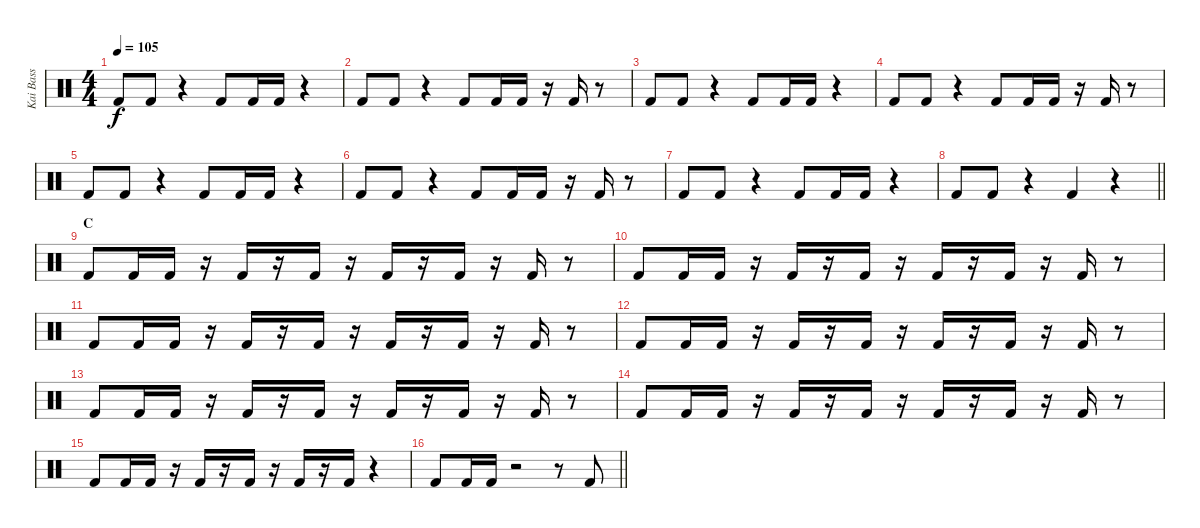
\track ("Kai Bass" "Kai Bass") {instrument percussion}
\staff {score}
\articulation defaults
\ts (4 4)
\tempo 105
\clef neutral
\ks c "Kick (hit) 2".8{dy f} "Kick (hit) 2".8
r.4 "Kick (hit) 2".8 "Kick (hit) 2".16 "Kick (hit) 2".16 r.4 |
"Kick (hit) 2".8 "Kick (hit) 2".8 r.4 "Kick (hit) 2".8 "Kick (hit) 2".16 "Kick (hit) 2".16 r.16 "Kick (hit) 2".16 r.8 |
"Kick (hit) 2".8 "Kick (hit) 2".8 r.4 "Kick (hit) 2".8 "Kick (hit) 2".16 "Kick (hit) 2".16 r.4 |
"Kick (hit) 2".8 "Kick (hit) 2".8 r.4 "Kick (hit) 2".8 "Kick (hit) 2".16 "Kick (hit) 2".16 r.16 "Kick (hit) 2".16 r.8 |
"Kick (hit) 2".8 "Kick (hit) 2".8 r.4 "Kick (hit) 2".8 "Kick (hit) 2".16 "Kick (hit) 2".16 r.4 |
"Kick (hit) 2".8 "Kick (hit) 2".8 r.4 "Kick (hit) 2".8 "Kick (hit) 2".16 "Kick (hit) 2".16 r.16 "Kick (hit) 2".16 r.8 |
"Kick (hit) 2".8 "Kick (hit) 2".8 r.4 "Kick (hit) 2".8 "Kick (hit) 2".16 "Kick (hit) 2".16 r.4 |
\barLineRight lightlight "Kick (hit) 2".8 "Kick (hit) 2".8
r.4 "Kick (hit) 2".4 r.4 |
\section ("" "C")
"Kick (hit) 2".8 "Kick (hit) 2".16 "Kick (hit) 2".16 r.16 "Kick (hit) 2".16 r.16 "Kick (hit) 2".16 r.16 "Kick (hit) 2".16 r.16 "Kick (hit) 2".16 r.16 "Kick (hit) 2".16 r.8 |
"Kick (hit) 2".8 "Kick (hit) 2".16 "Kick (hit) 2".16 r.16 "Kick (hit) 2".16 r.16 "Kick (hit) 2".16 r.16 "Kick (hit) 2".16 r.16 "Kick (hit) 2".16 r.16 "Kick (hit) 2".16 r.8 |
"Kick (hit) 2".8 "Kick (hit) 2".16 "Kick (hit) 2".16 r.16 "Kick (hit) 2".16 r.16 "Kick (hit) 2".16 r.16 "Kick (hit) 2".16 r.16 "Kick (hit) 2".16 r.16 "Kick (hit) 2".16 r.8 |
"Kick (hit) 2".8 "Kick (hit) 2".16 "Kick (hit) 2".16 r.16 "Kick (hit) 2".16 r.16 "Kick (hit) 2".16 r.16 "Kick (hit) 2".16 r.16 "Kick (hit) 2".16 r.16 "Kick (hit) 2".16 r.8 |
"Kick (hit) 2".8 "Kick (hit) 2".16 "Kick (hit) 2".16 r.16 "Kick (hit) 2".16 r.16 "Kick (hit) 2".16 r.16 "Kick (hit) 2".16 r.16 "Kick (hit) 2".16 r.16 "Kick (hit) 2".16 r.8 |
"Kick (hit) 2".8 "Kick (hit) 2".16 "Kick (hit) 2".16 r.16 "Kick (hit) 2".16 r.16 "Kick (hit) 2".16 r.16 "Kick (hit) 2".16 r.16 "Kick (hit) 2".16 r.16 "Kick (hit) 2".16 r.8 |
"Kick (hit) 2".8 "Kick (hit) 2".16 "Kick (hit) 2".16 r.16 "Kick (hit) 2".16 r.16 "Kick (hit) 2".16 r.16 "Kick (hit) 2".16 r.16 "Kick (hit) 2".16 r.4 |
\barLineRight lightlight "Kick (hit) 2".8 "Kick (hit) 2".16 "Kick (hit) 2".16
r.2 r.8 "Kick (hit) 2".8
